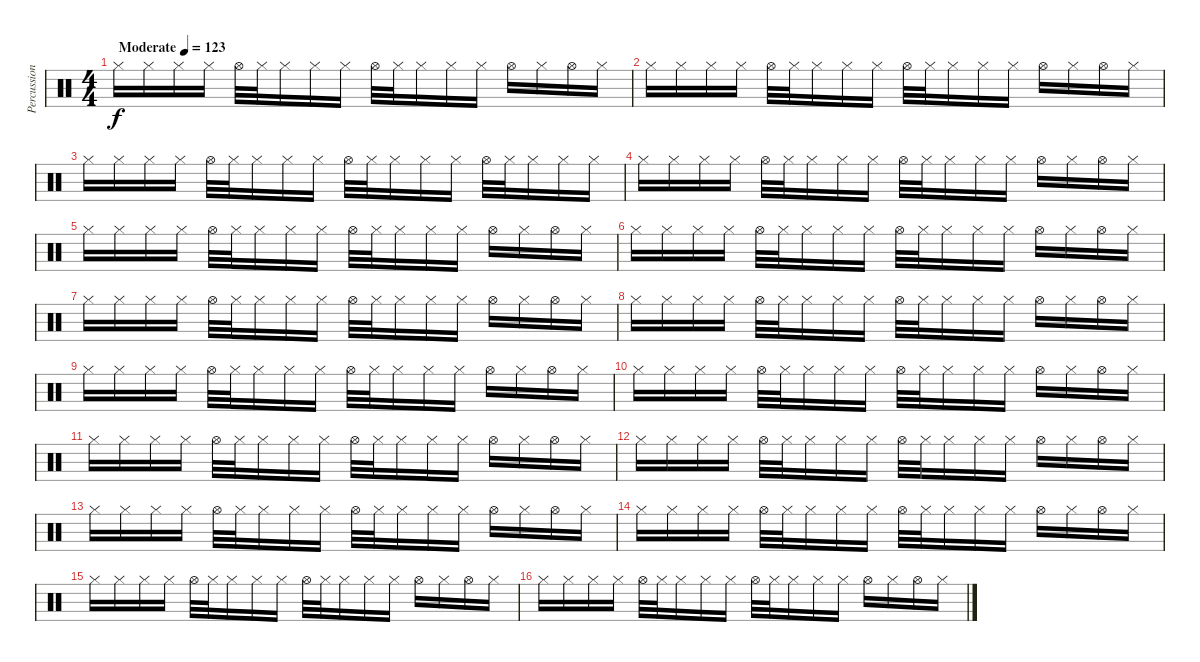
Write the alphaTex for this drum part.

\track ("Percussion" "Percussion") {instrument percussion}
\staff {score}
\articulation defaults
\ts (4 4)
\tempo (123 "Moderate")
\clef neutral
\ks c "Hi-Hat (closed)".16{dy f} "Hi-Hat (closed)".16 "Hi-Hat (closed)".16 "Hi-Hat (closed)".16 "Hi-Hat (open)".32 "Hi-Hat (closed)".32 "Hi-Hat (closed)".16 "Hi-Hat (closed)".16 "Hi-Hat (closed)".16 "Hi-Hat (open)".32 "Hi-Hat (closed)".32 "Hi-Hat (closed)".16 "Hi-Hat (closed)".16 "Hi-Hat (closed)".16 "Hi-Hat (open)".16 "Hi-Hat (closed)".16 "Hi-Hat (open)".16 "Hi-Hat (closed)".16
|
"Hi-Hat (closed)".16 "Hi-Hat (closed)".16 "Hi-Hat (closed)".16 "Hi-Hat (closed)".16 "Hi-Hat (open)".32 "Hi-Hat (closed)".32 "Hi-Hat (closed)".16 "Hi-Hat (closed)".16 "Hi-Hat (closed)".16 "Hi-Hat (open)".32 "Hi-Hat (closed)".32 "Hi-Hat (closed)".16 "Hi-Hat (closed)".16 "Hi-Hat (closed)".16 "Hi-Hat (open)".16 "Hi-Hat (closed)".16 "Hi-Hat (open)".16 "Hi-Hat (closed)".16 |
"Hi-Hat (closed)".16 "Hi-Hat (closed)".16 "Hi-Hat (closed)".16 "Hi-Hat (closed)".16 "Hi-Hat (open)".32 "Hi-Hat (closed)".32 "Hi-Hat (closed)".16 "Hi-Hat (closed)".16 "Hi-Hat (closed)".16 "Hi-Hat (open)".32 "Hi-Hat (closed)".32 "Hi-Hat (closed)".16 "Hi-Hat (closed)".16 "Hi-Hat (closed)".16 "Hi-Hat (open)".32 "Hi-Hat (closed)".32 "Hi-Hat (closed)".16 "Hi-Hat (closed)".16 "Hi-Hat (closed)".16 |
"Hi-Hat (closed)".16 "Hi-Hat (closed)".16 "Hi-Hat (closed)".16 "Hi-Hat (closed)".16 "Hi-Hat (open)".32 "Hi-Hat (closed)".32 "Hi-Hat (closed)".16 "Hi-Hat (closed)".16 "Hi-Hat (closed)".16 "Hi-Hat (open)".32 "Hi-Hat (closed)".32 "Hi-Hat (closed)".16 "Hi-Hat (closed)".16 "Hi-Hat (closed)".16 "Hi-Hat (open)".16 "Hi-Hat (closed)".16 "Hi-Hat (open)".16 "Hi-Hat (closed)".16 |
"Hi-Hat (closed)".16 "Hi-Hat (closed)".16 "Hi-Hat (closed)".16 "Hi-Hat (closed)".16 "Hi-Hat (open)".32 "Hi-Hat (closed)".32 "Hi-Hat (closed)".16 "Hi-Hat (closed)".16 "Hi-Hat (closed)".16 "Hi-Hat (open)".32 "Hi-Hat (closed)".32 "Hi-Hat (closed)".16 "Hi-Hat (closed)".16 "Hi-Hat (closed)".16 "Hi-Hat (open)".16 "Hi-Hat (closed)".16 "Hi-Hat (open)".16 "Hi-Hat (closed)".16 |
"Hi-Hat (closed)".16 "Hi-Hat (closed)".16 "Hi-Hat (closed)".16 "Hi-Hat (closed)".16 "Hi-Hat (open)".32 "Hi-Hat (closed)".32 "Hi-Hat (closed)".16 "Hi-Hat (closed)".16 "Hi-Hat (closed)".16 "Hi-Hat (open)".32 "Hi-Hat (closed)".32 "Hi-Hat (closed)".16 "Hi-Hat (closed)".16 "Hi-Hat (closed)".16 "Hi-Hat (open)".16 "Hi-Hat (closed)".16 "Hi-Hat (open)".16 "Hi-Hat (closed)".16 |
"Hi-Hat (closed)".16 "Hi-Hat (closed)".16 "Hi-Hat (closed)".16 "Hi-Hat (closed)".16 "Hi-Hat (open)".32 "Hi-Hat (closed)".32 "Hi-Hat (closed)".16 "Hi-Hat (closed)".16 "Hi-Hat (closed)".16 "Hi-Hat (open)".32 "Hi-Hat (closed)".32 "Hi-Hat (closed)".16 "Hi-Hat (closed)".16 "Hi-Hat (closed)".16 "Hi-Hat (open)".16 "Hi-Hat (closed)".16 "Hi-Hat (open)".16 "Hi-Hat (closed)".16 |
"Hi-Hat (closed)".16 "Hi-Hat (closed)".16 "Hi-Hat (closed)".16 "Hi-Hat (closed)".16 "Hi-Hat (open)".32 "Hi-Hat (closed)".32 "Hi-Hat (closed)".16 "Hi-Hat (closed)".16 "Hi-Hat (closed)".16 "Hi-Hat (open)".32 "Hi-Hat (closed)".32 "Hi-Hat (closed)".16 "Hi-Hat (closed)".16 "Hi-Hat (closed)".16 "Hi-Hat (open)".16 "Hi-Hat (closed)".16 "Hi-Hat (open)".16 "Hi-Hat (closed)".16 |
"Hi-Hat (closed)".16 "Hi-Hat (closed)".16 "Hi-Hat (closed)".16 "Hi-Hat (closed)".16 "Hi-Hat (open)".32 "Hi-Hat (closed)".32 "Hi-Hat (closed)".16 "Hi-Hat (closed)".16 "Hi-Hat (closed)".16 "Hi-Hat (open)".32 "Hi-Hat (closed)".32 "Hi-Hat (closed)".16 "Hi-Hat (closed)".16 "Hi-Hat (closed)".16 "Hi-Hat (open)".16 "Hi-Hat (closed)".16 "Hi-Hat (open)".16 "Hi-Hat (closed)".16 |
"Hi-Hat (closed)".16 "Hi-Hat (closed)".16 "Hi-Hat (closed)".16 "Hi-Hat (closed)".16 "Hi-Hat (open)".32 "Hi-Hat (closed)".32 "Hi-Hat (closed)".16 "Hi-Hat (closed)".16 "Hi-Hat (closed)".16 "Hi-Hat (open)".32 "Hi-Hat (closed)".32 "Hi-Hat (closed)".16 "Hi-Hat (closed)".16 "Hi-Hat (closed)".16 "Hi-Hat (open)".16 "Hi-Hat (closed)".16 "Hi-Hat (open)".16 "Hi-Hat (closed)".16 |
"Hi-Hat (closed)".16 "Hi-Hat (closed)".16 "Hi-Hat (closed)".16 "Hi-Hat (closed)".16 "Hi-Hat (open)".32 "Hi-Hat (closed)".32 "Hi-Hat (closed)".16 "Hi-Hat (closed)".16 "Hi-Hat (closed)".16 "Hi-Hat (open)".32 "Hi-Hat (closed)".32 "Hi-Hat (closed)".16 "Hi-Hat (closed)".16 "Hi-Hat (closed)".16 "Hi-Hat (open)".16 "Hi-Hat (closed)".16 "Hi-Hat (open)".16 "Hi-Hat (closed)".16 |
"Hi-Hat (closed)".16 "Hi-Hat (closed)".16 "Hi-Hat (closed)".16 "Hi-Hat (closed)".16 "Hi-Hat (open)".32 "Hi-Hat (closed)".32 "Hi-Hat (closed)".16 "Hi-Hat (closed)".16 "Hi-Hat (closed)".16 "Hi-Hat (open)".32 "Hi-Hat (closed)".32 "Hi-Hat (closed)".16 "Hi-Hat (closed)".16 "Hi-Hat (closed)".16 "Hi-Hat (open)".16 "Hi-Hat (closed)".16 "Hi-Hat (open)".16 "Hi-Hat (closed)".16 |
"Hi-Hat (closed)".16 "Hi-Hat (closed)".16 "Hi-Hat (closed)".16 "Hi-Hat (closed)".16 "Hi-Hat (open)".32 "Hi-Hat (closed)".32 "Hi-Hat (closed)".16 "Hi-Hat (closed)".16 "Hi-Hat (closed)".16 "Hi-Hat (open)".32 "Hi-Hat (closed)".32 "Hi-Hat (closed)".16 "Hi-Hat (closed)".16 "Hi-Hat (closed)".16 "Hi-Hat (open)".16 "Hi-Hat (closed)".16 "Hi-Hat (open)".16 "Hi-Hat (closed)".16 |
"Hi-Hat (closed)".16 "Hi-Hat (closed)".16 "Hi-Hat (closed)".16 "Hi-Hat (closed)".16 "Hi-Hat (open)".32 "Hi-Hat (closed)".32 "Hi-Hat (closed)".16 "Hi-Hat (closed)".16 "Hi-Hat (closed)".16 "Hi-Hat (open)".32 "Hi-Hat (closed)".32 "Hi-Hat (closed)".16 "Hi-Hat (closed)".16 "Hi-Hat (closed)".16 "Hi-Hat (open)".16 "Hi-Hat (closed)".16 "Hi-Hat (open)".16 "Hi-Hat (closed)".16 |
"Hi-Hat (closed)".16 "Hi-Hat (closed)".16 "Hi-Hat (closed)".16 "Hi-Hat (closed)".16 "Hi-Hat (open)".32 "Hi-Hat (closed)".32 "Hi-Hat (closed)".16 "Hi-Hat (closed)".16 "Hi-Hat (closed)".16 "Hi-Hat (open)".32 "Hi-Hat (closed)".32 "Hi-Hat (closed)".16 "Hi-Hat (closed)".16 "Hi-Hat (closed)".16 "Hi-Hat (open)".16 "Hi-Hat (closed)".16 "Hi-Hat (open)".16 "Hi-Hat (closed)".16 |
"Hi-Hat (closed)".16 "Hi-Hat (closed)".16 "Hi-Hat (closed)".16 "Hi-Hat (closed)".16 "Hi-Hat (open)".32 "Hi-Hat (closed)".32 "Hi-Hat (closed)".16 "Hi-Hat (closed)".16 "Hi-Hat (closed)".16 "Hi-Hat (open)".32 "Hi-Hat (closed)".32 "Hi-Hat (closed)".16 "Hi-Hat (closed)".16 "Hi-Hat (closed)".16 "Hi-Hat (open)".16 "Hi-Hat (closed)".16 "Hi-Hat (open)".16 "Hi-Hat (closed)".16
